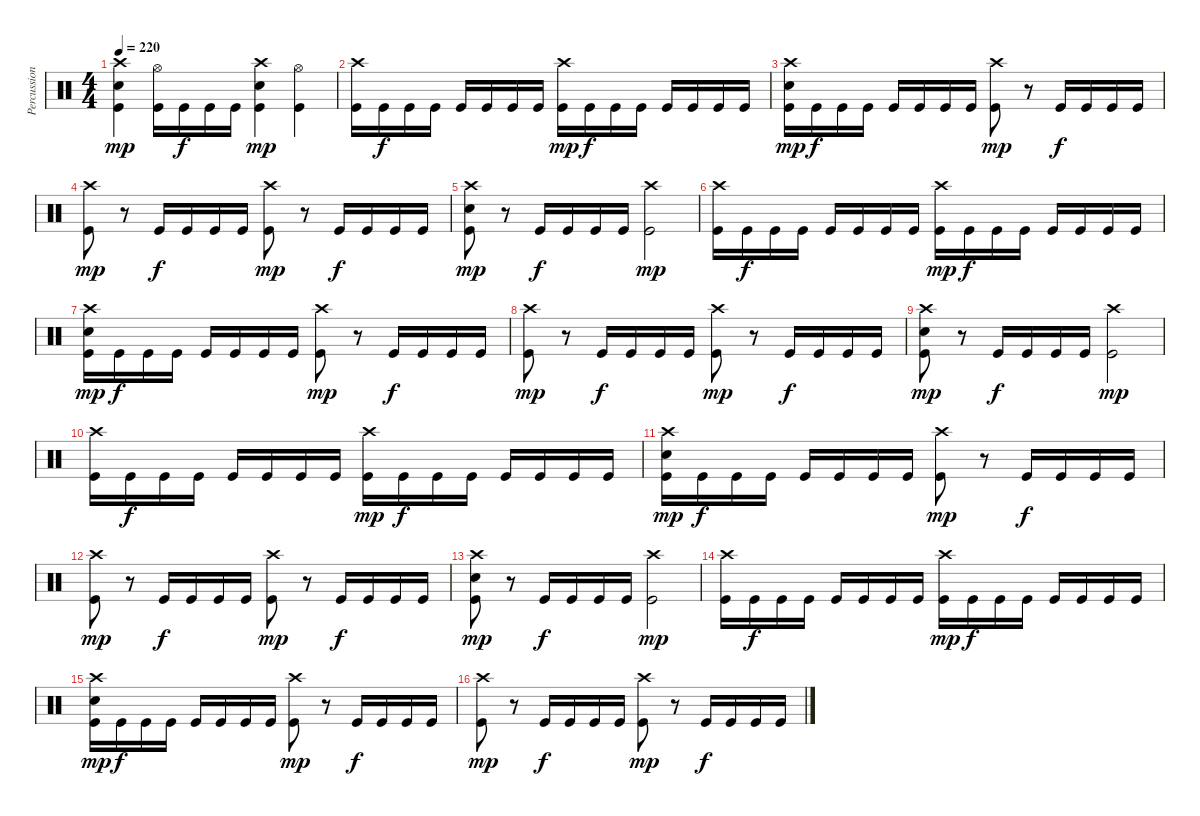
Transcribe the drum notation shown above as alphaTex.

\track ("Percussion" "Percussion") {instrument percussion}
\staff {score}
\articulation defaults
\ts (4 4)
\tempo 220
\clef neutral
\ks c
("Crash high (hit)" "Electric Snare (hit)" "Kick (hit)").4{dy mp} ("Hi-Hat (open)" "Kick (hit)").16 "Kick (hit)".16{dy f} "Kick (hit)".16 "Kick (hit)".16 ("Crash high (hit)" "Electric Snare (hit)" "Kick (hit)").4{dy mp} ("Hi-Hat (open)" "Kick (hit)").4 |
("Crash high (hit)" "Kick (hit)").16 "Kick (hit)".16{dy f} "Kick (hit)".16 "Kick (hit)".16 "Kick (hit)".16 "Kick (hit)".16 "Kick (hit)".16 "Kick (hit)".16 ("Crash high (hit)" "Kick (hit)").16{dy mp} "Kick (hit)".16{dy f} "Kick (hit)".16 "Kick (hit)".16 "Kick (hit)".16 "Kick (hit)".16 "Kick (hit)".16 "Kick (hit)".16 |
("Crash high (hit)" "Electric Snare (hit)" "Kick (hit)").16{dy mp} "Kick (hit)".16{dy f} "Kick (hit)".16 "Kick (hit)".16 "Kick (hit)".16 "Kick (hit)".16 "Kick (hit)".16 "Kick (hit)".16 ("Crash high (hit)" "Kick (hit)").8{dy mp} r.8 "Kick (hit)".16{dy f} "Kick (hit)".16 "Kick (hit)".16 "Kick (hit)".16 |
("Crash high (hit)" "Kick (hit)").8{dy mp} r.8 "Kick (hit)".16{dy f} "Kick (hit)".16 "Kick (hit)".16 "Kick (hit)".16 ("Crash high (hit)" "Kick (hit)").8{dy mp} r.8 "Kick (hit)".16{dy f} "Kick (hit)".16 "Kick (hit)".16 "Kick (hit)".16 |
("Crash high (hit)" "Electric Snare (hit)" "Kick (hit)").8{dy mp} r.8 "Kick (hit)".16{dy f} "Kick (hit)".16 "Kick (hit)".16 "Kick (hit)".16 ("Crash high (hit)" "Kick (hit)").2{dy mp} |
("Crash high (hit)" "Kick (hit)").16 "Kick (hit)".16{dy f} "Kick (hit)".16 "Kick (hit)".16 "Kick (hit)".16 "Kick (hit)".16 "Kick (hit)".16 "Kick (hit)".16 ("Crash high (hit)" "Kick (hit)").16{dy mp} "Kick (hit)".16{dy f} "Kick (hit)".16 "Kick (hit)".16 "Kick (hit)".16 "Kick (hit)".16 "Kick (hit)".16 "Kick (hit)".16 |
("Crash high (hit)" "Electric Snare (hit)" "Kick (hit)").16{dy mp} "Kick (hit)".16{dy f} "Kick (hit)".16 "Kick (hit)".16 "Kick (hit)".16 "Kick (hit)".16 "Kick (hit)".16 "Kick (hit)".16 ("Crash high (hit)" "Kick (hit)").8{dy mp} r.8 "Kick (hit)".16{dy f} "Kick (hit)".16 "Kick (hit)".16 "Kick (hit)".16 |
("Crash high (hit)" "Kick (hit)").8{dy mp} r.8 "Kick (hit)".16{dy f} "Kick (hit)".16 "Kick (hit)".16 "Kick (hit)".16 ("Crash high (hit)" "Kick (hit)").8{dy mp} r.8 "Kick (hit)".16{dy f} "Kick (hit)".16 "Kick (hit)".16 "Kick (hit)".16 |
("Crash high (hit)" "Electric Snare (hit)" "Kick (hit)").8{dy mp} r.8 "Kick (hit)".16{dy f} "Kick (hit)".16 "Kick (hit)".16 "Kick (hit)".16 ("Crash high (hit)" "Kick (hit)").2{dy mp} |
("Crash high (hit)" "Kick (hit)").16 "Kick (hit)".16{dy f} "Kick (hit)".16 "Kick (hit)".16 "Kick (hit)".16 "Kick (hit)".16 "Kick (hit)".16 "Kick (hit)".16 ("Crash high (hit)" "Kick (hit)").16{dy mp} "Kick (hit)".16{dy f} "Kick (hit)".16 "Kick (hit)".16 "Kick (hit)".16 "Kick (hit)".16 "Kick (hit)".16 "Kick (hit)".16 |
("Crash high (hit)" "Electric Snare (hit)" "Kick (hit)").16{dy mp} "Kick (hit)".16{dy f} "Kick (hit)".16 "Kick (hit)".16 "Kick (hit)".16 "Kick (hit)".16 "Kick (hit)".16 "Kick (hit)".16 ("Crash high (hit)" "Kick (hit)").8{dy mp} r.8 "Kick (hit)".16{dy f} "Kick (hit)".16 "Kick (hit)".16 "Kick (hit)".16 |
("Crash high (hit)" "Kick (hit)").8{dy mp} r.8 "Kick (hit)".16{dy f} "Kick (hit)".16 "Kick (hit)".16 "Kick (hit)".16 ("Crash high (hit)" "Kick (hit)").8{dy mp} r.8 "Kick (hit)".16{dy f} "Kick (hit)".16 "Kick (hit)".16 "Kick (hit)".16 |
("Crash high (hit)" "Electric Snare (hit)" "Kick (hit)").8{dy mp} r.8 "Kick (hit)".16{dy f} "Kick (hit)".16 "Kick (hit)".16 "Kick (hit)".16 ("Crash high (hit)" "Kick (hit)").2{dy mp} |
("Crash high (hit)" "Kick (hit)").16 "Kick (hit)".16{dy f} "Kick (hit)".16 "Kick (hit)".16 "Kick (hit)".16 "Kick (hit)".16 "Kick (hit)".16 "Kick (hit)".16 ("Crash high (hit)" "Kick (hit)").16{dy mp} "Kick (hit)".16{dy f} "Kick (hit)".16 "Kick (hit)".16 "Kick (hit)".16 "Kick (hit)".16 "Kick (hit)".16 "Kick (hit)".16 |
("Crash high (hit)" "Electric Snare (hit)" "Kick (hit)").16{dy mp} "Kick (hit)".16{dy f} "Kick (hit)".16 "Kick (hit)".16 "Kick (hit)".16 "Kick (hit)".16 "Kick (hit)".16 "Kick (hit)".16 ("Crash high (hit)" "Kick (hit)").8{dy mp} r.8 "Kick (hit)".16{dy f} "Kick (hit)".16 "Kick (hit)".16 "Kick (hit)".16 |
("Crash high (hit)" "Kick (hit)").8{dy mp} r.8 "Kick (hit)".16{dy f} "Kick (hit)".16 "Kick (hit)".16 "Kick (hit)".16 ("Crash high (hit)" "Kick (hit)").8{dy mp} r.8 "Kick (hit)".16{dy f} "Kick (hit)".16 "Kick (hit)".16 "Kick (hit)".16
